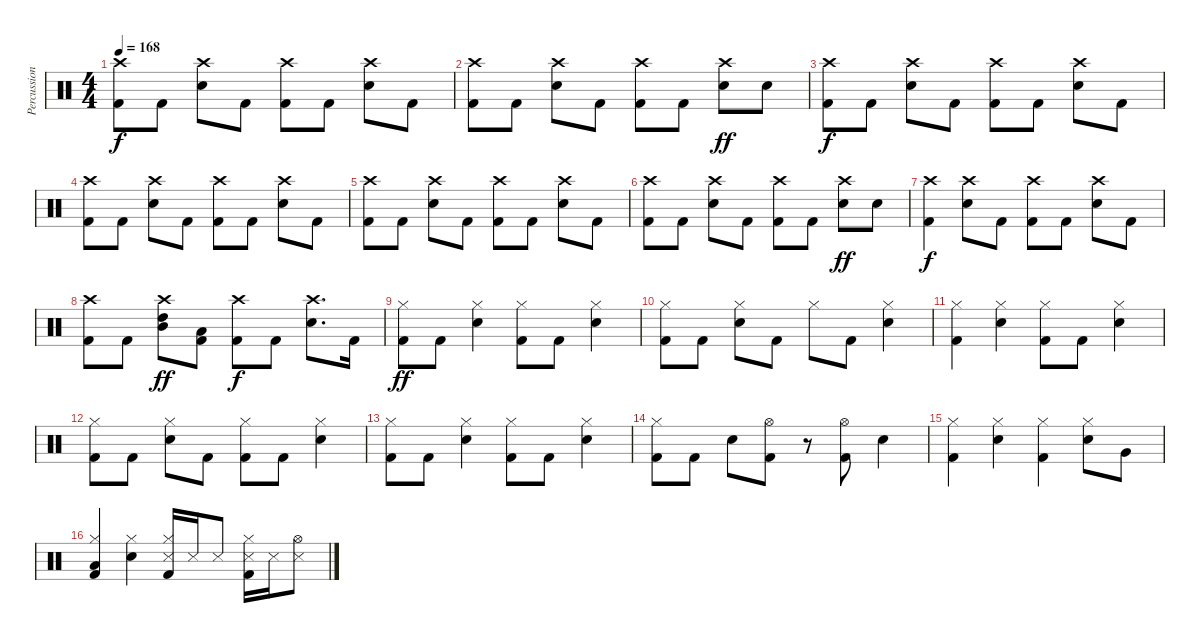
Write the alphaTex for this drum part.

\track ("Percussion" "Percussion") {instrument percussion}
\staff {score}
\articulation defaults
\ts (4 4)
\tempo 168
\clef neutral
\ks c
("Kick (hit) 2" "Crash high (hit)").8{dy f} "Kick (hit) 2".8 ("Snare (hit) 2" "Crash high (hit)").8 "Kick (hit) 2".8 ("Kick (hit) 2" "Crash high (hit)").8 "Kick (hit) 2".8 ("Snare (hit) 2" "Crash high (hit)").8 "Kick (hit) 2".8 |
("Kick (hit) 2" "Crash high (hit)").8 "Kick (hit) 2".8 ("Snare (hit) 2" "Crash high (hit)").8 "Kick (hit) 2".8 ("Kick (hit) 2" "Crash high (hit)").8 "Kick (hit) 2".8 ("Snare (hit) 2" "Crash high (hit)").8{dy ff} "Snare (hit) 2".8 |
("Kick (hit) 2" "Crash high (hit)").8{dy f} "Kick (hit) 2".8 ("Snare (hit) 2" "Crash high (hit)").8 "Kick (hit) 2".8 ("Kick (hit) 2" "Crash high (hit)").8 "Kick (hit) 2".8 ("Snare (hit) 2" "Crash high (hit)").8 "Kick (hit) 2".8 |
("Kick (hit) 2" "Crash high (hit)").8 "Kick (hit) 2".8 ("Snare (hit) 2" "Crash high (hit)").8 "Kick (hit) 2".8 ("Kick (hit) 2" "Crash high (hit)").8 "Kick (hit) 2".8 ("Snare (hit) 2" "Crash high (hit)").8 "Kick (hit) 2".8 |
("Kick (hit) 2" "Crash high (hit)").8 "Kick (hit) 2".8 ("Snare (hit) 2" "Crash high (hit)").8 "Kick (hit) 2".8 ("Kick (hit) 2" "Crash high (hit)").8 "Kick (hit) 2".8 ("Snare (hit) 2" "Crash high (hit)").8 "Kick (hit) 2".8 |
("Kick (hit) 2" "Crash high (hit)").8 "Kick (hit) 2".8 ("Snare (hit) 2" "Crash high (hit)").8 "Kick (hit) 2".8 ("Kick (hit) 2" "Crash high (hit)").8 "Kick (hit) 2".8 ("Snare (hit) 2" "Crash high (hit)").8{dy ff} "Snare (hit) 2".8 |
("Kick (hit) 2" "Crash high (hit)").4{dy f} ("Snare (hit) 2" "Crash high (hit)").8 "Kick (hit) 2".8 ("Kick (hit) 2" "Crash high (hit)").8 "Kick (hit) 2".8 ("Snare (hit) 2" "Crash high (hit)").8 "Kick (hit) 2".8 |
("Kick (hit) 2" "Crash high (hit)").8 "Kick (hit) 2".8 ("High Tom (hit)" "Crash high (hit)" "Mid Tom (hit)").8{dy ff} ("Kick (hit) 2" "Low Tom (hit)").8 ("Kick (hit) 2" "Crash high (hit)").8{dy f} "Kick (hit) 2".8 ("Snare (hit) 2" "Crash high (hit)").8{d} "Kick (hit) 2".16 |
("Kick (hit) 2" "Hi-Hat (closed)").8{dy ff} "Kick (hit) 2".8 ("Snare (hit) 2" "Hi-Hat (closed)").4 ("Kick (hit) 2" "Hi-Hat (closed)").8 "Kick (hit) 2".8 ("Snare (hit) 2" "Hi-Hat (closed)").4 |
("Kick (hit) 2" "Hi-Hat (closed)").8 "Kick (hit) 2".8 ("Snare (hit) 2" "Hi-Hat (closed)").8 "Kick (hit) 2".8 "Hi-Hat (closed)".8 "Kick (hit) 2".8 ("Snare (hit) 2" "Hi-Hat (closed)").4 |
("Kick (hit) 2" "Hi-Hat (closed)").4 ("Snare (hit) 2" "Hi-Hat (closed)").4 ("Kick (hit) 2" "Hi-Hat (closed)").8 "Kick (hit) 2".8 ("Snare (hit) 2" "Hi-Hat (closed)").4 |
("Kick (hit) 2" "Hi-Hat (closed)").8 "Kick (hit) 2".8 ("Snare (hit) 2" "Hi-Hat (closed)").8 "Kick (hit) 2".8 ("Kick (hit) 2" "Hi-Hat (closed)").8 "Kick (hit) 2".8 ("Snare (hit) 2" "Hi-Hat (closed)").4 |
("Kick (hit) 2" "Hi-Hat (closed)").8 "Kick (hit) 2".8 ("Snare (hit) 2" "Hi-Hat (closed)").4 ("Kick (hit) 2" "Hi-Hat (closed)").8 "Kick (hit) 2".8 ("Snare (hit) 2" "Hi-Hat (closed)").4 |
("Kick (hit) 2" "Hi-Hat (closed)").8 "Kick (hit) 2".8 "Snare (hit) 2".8 ("Kick (hit) 2" "Hi-Hat (open)").8 r.8 ("Kick (hit) 2" "Hi-Hat (open)").8 "Snare (hit) 2".4 |
("Kick (hit) 2" "Hi-Hat (closed)").4 ("Snare (hit) 2" "Hi-Hat (closed)").4 ("Kick (hit) 2" "Hi-Hat (closed)").4 ("Snare (hit) 2" "Hi-Hat (closed)").8 "Very Low Tom (hit)".8 |
("Low Floor Tom (hit)" "Kick (hit) 2" "Hi-Hat (closed)").4 ("Snare (hit) 2" "Hi-Hat (closed)").4 ("Snare (side stick) 3" "Hi-Hat (closed)" "Kick (hit) 2").16 "Snare (side stick) 3".16 "Snare (side stick) 3".8 ("Snare (side stick) 3" "Kick (hit) 2" "Hi-Hat (closed)").16 "Snare (side stick) 3".16 ("Hi-Hat (open)" "Snare (side stick) 3").8
